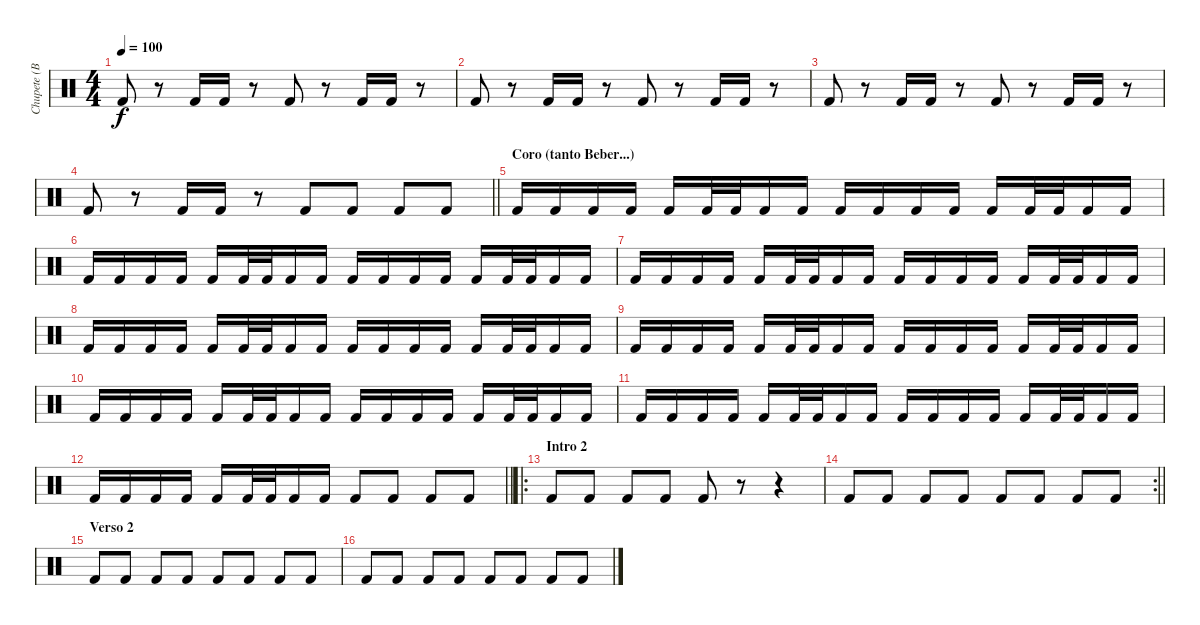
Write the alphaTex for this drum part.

\track ("Chupete (Bateria Bombo)" "Chupete (B") {instrument percussion}
\staff {score}
\articulation defaults
\ts (4 4)
\tempo 100
\clef neutral
\ks c "Kick (hit) 2".8{dy f}
r.8 "Kick (hit) 2".16 "Kick (hit) 2".16 r.8 "Kick (hit) 2".8 r.8 "Kick (hit) 2".16 "Kick (hit) 2".16 r.8 |
"Kick (hit) 2".8 r.8 "Kick (hit) 2".16 "Kick (hit) 2".16 r.8 "Kick (hit) 2".8 r.8 "Kick (hit) 2".16 "Kick (hit) 2".16 r.8 |
"Kick (hit) 2".8 r.8 "Kick (hit) 2".16 "Kick (hit) 2".16 r.8 "Kick (hit) 2".8 r.8 "Kick (hit) 2".16 "Kick (hit) 2".16 r.8 |
\barLineRight lightlight "Kick (hit) 2".8
r.8 "Kick (hit) 2".16 "Kick (hit) 2".16 r.8 "Kick (hit) 2".8 "Kick (hit) 2".8 "Kick (hit) 2".8 "Kick (hit) 2".8 |
\section ("" "Coro (tanto Beber...)")
"Kick (hit) 2".16 "Kick (hit) 2".16 "Kick (hit) 2".16 "Kick (hit) 2".16 "Kick (hit) 2".16 "Kick (hit) 2".32 "Kick (hit) 2".32 "Kick (hit) 2".16 "Kick (hit) 2".16 "Kick (hit) 2".16 "Kick (hit) 2".16 "Kick (hit) 2".16 "Kick (hit) 2".16 "Kick (hit) 2".16 "Kick (hit) 2".32 "Kick (hit) 2".32 "Kick (hit) 2".16 "Kick (hit) 2".16 |
"Kick (hit) 2".16 "Kick (hit) 2".16 "Kick (hit) 2".16 "Kick (hit) 2".16 "Kick (hit) 2".16 "Kick (hit) 2".32 "Kick (hit) 2".32 "Kick (hit) 2".16 "Kick (hit) 2".16 "Kick (hit) 2".16 "Kick (hit) 2".16 "Kick (hit) 2".16 "Kick (hit) 2".16 "Kick (hit) 2".16 "Kick (hit) 2".32 "Kick (hit) 2".32 "Kick (hit) 2".16 "Kick (hit) 2".16 |
"Kick (hit) 2".16 "Kick (hit) 2".16 "Kick (hit) 2".16 "Kick (hit) 2".16 "Kick (hit) 2".16 "Kick (hit) 2".32 "Kick (hit) 2".32 "Kick (hit) 2".16 "Kick (hit) 2".16 "Kick (hit) 2".16 "Kick (hit) 2".16 "Kick (hit) 2".16 "Kick (hit) 2".16 "Kick (hit) 2".16 "Kick (hit) 2".32 "Kick (hit) 2".32 "Kick (hit) 2".16 "Kick (hit) 2".16 |
"Kick (hit) 2".16 "Kick (hit) 2".16 "Kick (hit) 2".16 "Kick (hit) 2".16 "Kick (hit) 2".16 "Kick (hit) 2".32 "Kick (hit) 2".32 "Kick (hit) 2".16 "Kick (hit) 2".16 "Kick (hit) 2".16 "Kick (hit) 2".16 "Kick (hit) 2".16 "Kick (hit) 2".16 "Kick (hit) 2".16 "Kick (hit) 2".32 "Kick (hit) 2".32 "Kick (hit) 2".16 "Kick (hit) 2".16 |
"Kick (hit) 2".16 "Kick (hit) 2".16 "Kick (hit) 2".16 "Kick (hit) 2".16 "Kick (hit) 2".16 "Kick (hit) 2".32 "Kick (hit) 2".32 "Kick (hit) 2".16 "Kick (hit) 2".16 "Kick (hit) 2".16 "Kick (hit) 2".16 "Kick (hit) 2".16 "Kick (hit) 2".16 "Kick (hit) 2".16 "Kick (hit) 2".32 "Kick (hit) 2".32 "Kick (hit) 2".16 "Kick (hit) 2".16 |
"Kick (hit) 2".16 "Kick (hit) 2".16 "Kick (hit) 2".16 "Kick (hit) 2".16 "Kick (hit) 2".16 "Kick (hit) 2".32 "Kick (hit) 2".32 "Kick (hit) 2".16 "Kick (hit) 2".16 "Kick (hit) 2".16 "Kick (hit) 2".16 "Kick (hit) 2".16 "Kick (hit) 2".16 "Kick (hit) 2".16 "Kick (hit) 2".32 "Kick (hit) 2".32 "Kick (hit) 2".16 "Kick (hit) 2".16 |
"Kick (hit) 2".16 "Kick (hit) 2".16 "Kick (hit) 2".16 "Kick (hit) 2".16 "Kick (hit) 2".16 "Kick (hit) 2".32 "Kick (hit) 2".32 "Kick (hit) 2".16 "Kick (hit) 2".16 "Kick (hit) 2".16 "Kick (hit) 2".16 "Kick (hit) 2".16 "Kick (hit) 2".16 "Kick (hit) 2".16 "Kick (hit) 2".32 "Kick (hit) 2".32 "Kick (hit) 2".16 "Kick (hit) 2".16 |
\barLineRight lightlight "Kick (hit) 2".16 "Kick (hit) 2".16 "Kick (hit) 2".16 "Kick (hit) 2".16 "Kick (hit) 2".16 "Kick (hit) 2".32 "Kick (hit) 2".32 "Kick (hit) 2".16 "Kick (hit) 2".16 "Kick (hit) 2".8 "Kick (hit) 2".8 "Kick (hit) 2".8 "Kick (hit) 2".8
|
\ro
\section ("" "Intro 2")
"Kick (hit) 2".8 "Kick (hit) 2".8 "Kick (hit) 2".8 "Kick (hit) 2".8 "Kick (hit) 2".8 r.8 r.4 |
\rc 2
\barLineRight lightlight "Kick (hit) 2".8 "Kick (hit) 2".8 "Kick (hit) 2".8 "Kick (hit) 2".8 "Kick (hit) 2".8 "Kick (hit) 2".8 "Kick (hit) 2".8 "Kick (hit) 2".8
|
\section ("" "Verso 2")
"Kick (hit) 2".8 "Kick (hit) 2".8 "Kick (hit) 2".8 "Kick (hit) 2".8 "Kick (hit) 2".8 "Kick (hit) 2".8 "Kick (hit) 2".8 "Kick (hit) 2".8 |
"Kick (hit) 2".8 "Kick (hit) 2".8 "Kick (hit) 2".8 "Kick (hit) 2".8 "Kick (hit) 2".8 "Kick (hit) 2".8 "Kick (hit) 2".8 "Kick (hit) 2".8
